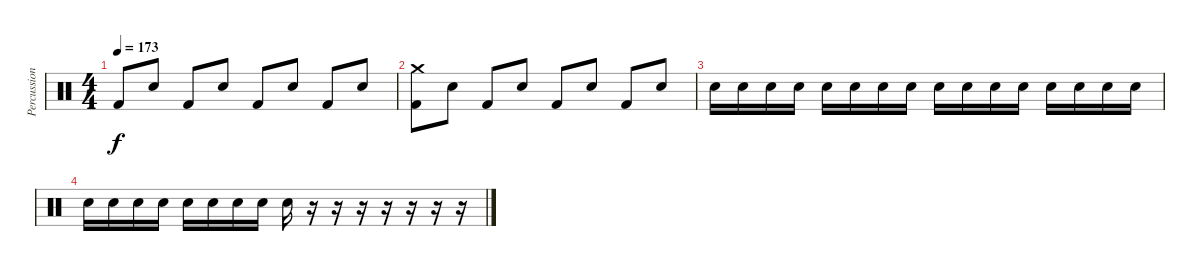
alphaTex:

\track ("Percussions" "Percussion") {instrument percussion}
\staff {score}
\articulation defaults
\ts (4 4)
\tempo 173
\clef neutral
\ks c "Kick (hit) 2".8{dy f} "Electric Snare (hit)".8 "Kick (hit) 2".8 "Electric Snare (hit)".8 "Kick (hit) 2".8 "Electric Snare (hit)".8 "Kick (hit) 2".8 "Electric Snare (hit)".8
|
("Kick (hit) 2" "Crash medium (hit)").8 "Electric Snare (hit)".8 "Kick (hit) 2".8 "Electric Snare (hit)".8 "Kick (hit) 2".8 "Electric Snare (hit)".8 "Kick (hit) 2".8 "Electric Snare (hit)".8 |
"Electric Snare (hit)".16 "Electric Snare (hit)".16 "Electric Snare (hit)".16 "Electric Snare (hit)".16 "Electric Snare (hit)".16 "Electric Snare (hit)".16 "Electric Snare (hit)".16 "Electric Snare (hit)".16 "Electric Snare (hit)".16 "Electric Snare (hit)".16 "Electric Snare (hit)".16 "Electric Snare (hit)".16 "Electric Snare (hit)".16 "Electric Snare (hit)".16 "Electric Snare (hit)".16 "Electric Snare (hit)".16 |
"Electric Snare (hit)".16 "Electric Snare (hit)".16 "Electric Snare (hit)".16 "Electric Snare (hit)".16 "Electric Snare (hit)".16 "Electric Snare (hit)".16 "Electric Snare (hit)".16 "Electric Snare (hit)".16 "Electric Snare (hit)".16 r.16 r.16 r.16 r.16 r.16 r.16 r.16
